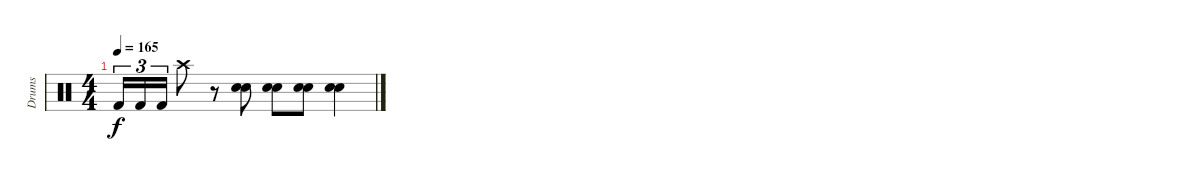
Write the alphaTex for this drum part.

\track ("Drums" "Drums") {instrument percussion}
\staff {score}
\articulation defaults
\ts (4 4)
\tempo 165
\clef neutral
\ks c "Kick (hit) 2".16{tu (3 2) dy f} "Kick (hit) 2".16{tu (3 2)} "Kick (hit) 2".16{tu (3 2)} "Crash high (hit)".8
r.8 ("Snare (hit) 2" "Snare (hit) 2").8 ("Snare (hit) 2" "Snare (hit) 2").8 ("Snare (hit) 2" "Snare (hit) 2").8 ("Snare (hit) 2" "Snare (hit) 2").4
